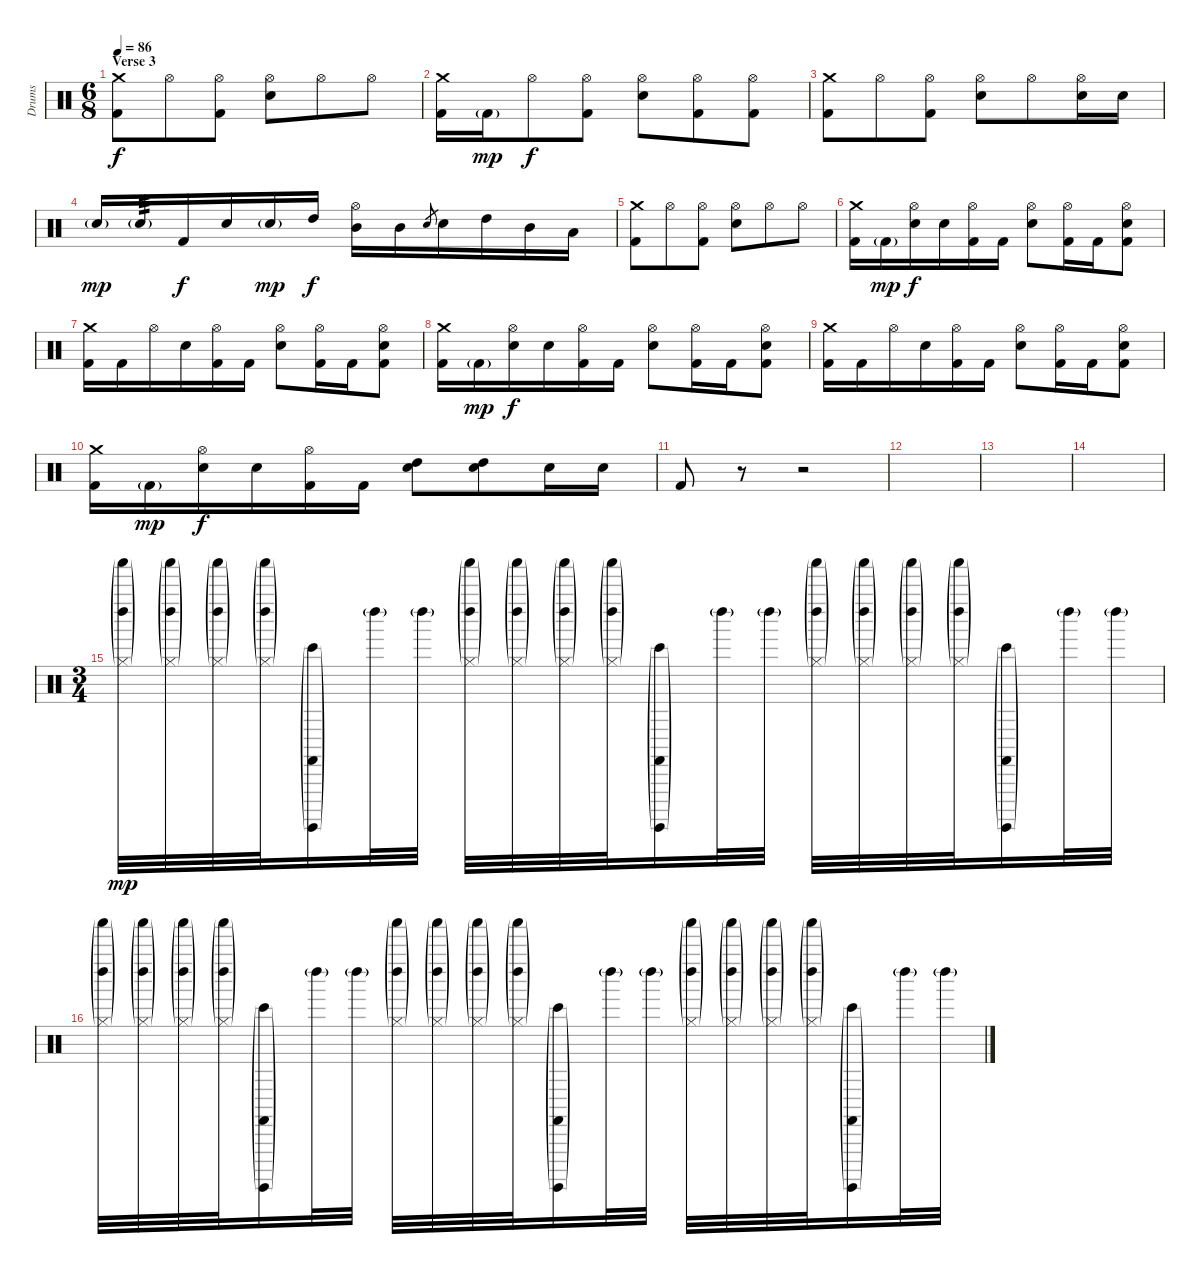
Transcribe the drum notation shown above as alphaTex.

\track ("Drums" "Drums") {instrument percussion}
\staff {score}
\articulation defaults
\ts (6 8)
\section ("" "Verse 3")
\tempo 86
\clef neutral
\ks c
("Crash medium (hit)" "Kick (hit) 2").8{dy f} "Hi-Hat (open)".8 ("Hi-Hat (open)" "Kick (hit) 2").8 ("Hi-Hat (open)" "Electric Snare (hit)").8 "Hi-Hat (open)".8 "Hi-Hat (open)".8 |
("Crash medium (hit)" "Kick (hit) 2").16 "Kick (hit) 2"{g}.16{dy mp} "Hi-Hat (open)".8{dy f} ("Hi-Hat (open)" "Kick (hit) 2").8 ("Hi-Hat (open)" "Electric Snare (hit)").8 ("Hi-Hat (open)" "Kick (hit) 2").8 ("Hi-Hat (open)" "Kick (hit) 2").8 |
("Crash medium (hit)" "Kick (hit) 2").8 "Hi-Hat (open)".8 ("Hi-Hat (open)" "Kick (hit) 2").8 ("Hi-Hat (open)" "Electric Snare (hit)").8 "Hi-Hat (open)".8 ("Hi-Hat (open)" "Electric Snare (hit)").16 "Electric Snare (hit)".16 |
"Electric Snare (hit)"{g}.16{dy mp} "Electric Snare (hit)"{g}.16{tp 3} "Kick (hit) 2".16{dy f} "Electric Snare (hit)".16 "Electric Snare (hit)"{g}.16{dy mp} "High Tom (hit)".16{dy f} ("Hi-Hat (open)" "Mid Tom (hit)").16 "Mid Tom (hit)".16 "Electric Snare (hit)".8{gr} "Electric Snare (hit)".16 "High Tom (hit)".16 "Mid Tom (hit)".16 "Low Tom (hit)".16 |
("Crash medium (hit)" "Kick (hit) 2").8 "Hi-Hat (open)".8 ("Hi-Hat (open)" "Kick (hit) 2").8 ("Hi-Hat (open)" "Electric Snare (hit)").8 "Hi-Hat (open)".8 "Hi-Hat (open)".8 |
("Crash medium (hit)" "Kick (hit) 2").16 "Kick (hit) 2"{g}.16{dy mp} ("Hi-Hat (open)" "Electric Snare (hit)").16{dy f} "Electric Snare (hit)".16 ("Hi-Hat (open)" "Kick (hit) 2").16 "Kick (hit) 2".16 ("Hi-Hat (open)" "Electric Snare (hit)").8 ("Hi-Hat (open)" "Kick (hit) 2").16 "Kick (hit) 2".16 ("Hi-Hat (open)" "Electric Snare (hit)" "Kick (hit) 2").8 |
("Crash medium (hit)" "Kick (hit) 2").16 "Kick (hit) 2".16 "Hi-Hat (open)".16 "Electric Snare (hit)".16 ("Hi-Hat (open)" "Kick (hit) 2").16 "Kick (hit) 2".16 ("Hi-Hat (open)" "Electric Snare (hit)").8 ("Hi-Hat (open)" "Kick (hit) 2").16 "Kick (hit) 2".16 ("Hi-Hat (open)" "Electric Snare (hit)" "Kick (hit) 2").8 |
("Crash medium (hit)" "Kick (hit) 2").16 "Kick (hit) 2"{g}.16{dy mp} ("Hi-Hat (open)" "Electric Snare (hit)").16{dy f} "Electric Snare (hit)".16 ("Hi-Hat (open)" "Kick (hit) 2").16 "Kick (hit) 2".16 ("Hi-Hat (open)" "Electric Snare (hit)").8 ("Hi-Hat (open)" "Kick (hit) 2").16 "Kick (hit) 2".16 ("Hi-Hat (open)" "Electric Snare (hit)" "Kick (hit) 2").8 |
("Crash medium (hit)" "Kick (hit) 2").16 "Kick (hit) 2".16 "Hi-Hat (open)".16 "Electric Snare (hit)".16 ("Hi-Hat (open)" "Kick (hit) 2").16 "Kick (hit) 2".16 ("Hi-Hat (open)" "Electric Snare (hit)").8 ("Hi-Hat (open)" "Kick (hit) 2").16 "Kick (hit) 2".16 ("Hi-Hat (open)" "Electric Snare (hit)" "Kick (hit) 2").8 |
("Crash medium (hit)" "Kick (hit) 2").16 "Kick (hit) 2"{g}.16{dy mp} ("Hi-Hat (open)" "Electric Snare (hit)").16{dy f} "Electric Snare (hit)".16 ("Hi-Hat (open)" "Kick (hit) 2").16 "Kick (hit) 2".16 ("High Tom (hit)" "Electric Snare (hit)").8 ("High Tom (hit)" "Electric Snare (hit)").8 "Electric Snare (hit)".16 "Electric Snare (hit)".16 |
"Kick (hit) 2".8 r.8 r.2 |
|
|
|
\ts (3 4)
("Shaker (hit)"{g} "Left Maraca (hit)"{g} "Hi-Hat (closed)"{g}).32{dy mp volume 5} ("Shaker (hit)"{g} "Left Maraca (hit)"{g} "Hi-Hat (closed)"{g}).32{volume 13} ("Shaker (hit)"{g} "Left Maraca (hit)"{g} "Hi-Hat (closed)"{g}).32 ("Shaker (hit)"{g} "Left Maraca (hit)"{g} "Hi-Hat (closed)"{g}).32 ("Castanets (hit)"{g} "Surdo (hit)"{g} "Bongo High (hit)"{g}).16 "Left Maraca (hit)"{g}.32 "Left Maraca (hit)"{g}.32 ("Shaker (hit)"{g} "Left Maraca (hit)"{g} "Hi-Hat (closed)"{g}).32 ("Shaker (hit)"{g} "Left Maraca (hit)"{g} "Hi-Hat (closed)"{g}).32 ("Shaker (hit)"{g} "Left Maraca (hit)"{g} "Hi-Hat (closed)"{g}).32 ("Shaker (hit)"{g} "Left Maraca (hit)"{g} "Hi-Hat (closed)"{g}).32 ("Castanets (hit)"{g} "Surdo (hit)"{g} "Bongo High (hit)"{g}).16 "Left Maraca (hit)"{g}.32 "Left Maraca (hit)"{g}.32 ("Shaker (hit)"{g} "Left Maraca (hit)"{g} "Hi-Hat (closed)"{g}).32 ("Shaker (hit)"{g} "Left Maraca (hit)"{g} "Hi-Hat (closed)"{g}).32 ("Shaker (hit)"{g} "Left Maraca (hit)"{g} "Hi-Hat (closed)"{g}).32 ("Shaker (hit)"{g} "Left Maraca (hit)"{g} "Hi-Hat (closed)"{g}).32 ("Castanets (hit)"{g} "Surdo (hit)"{g} "Bongo High (hit)"{g}).16 "Left Maraca (hit)"{g}.32 "Left Maraca (hit)"{g}.32 |
("Shaker (hit)"{g} "Left Maraca (hit)"{g} "Hi-Hat (closed)"{g}).32 ("Shaker (hit)"{g} "Left Maraca (hit)"{g} "Hi-Hat (closed)"{g}).32 ("Shaker (hit)"{g} "Left Maraca (hit)"{g} "Hi-Hat (closed)"{g}).32 ("Shaker (hit)"{g} "Left Maraca (hit)"{g} "Hi-Hat (closed)"{g}).32 ("Castanets (hit)"{g} "Surdo (hit)"{g} "Bongo High (hit)"{g}).16 "Left Maraca (hit)"{g}.32 "Left Maraca (hit)"{g}.32 ("Shaker (hit)"{g} "Left Maraca (hit)"{g} "Hi-Hat (closed)"{g}).32 ("Shaker (hit)"{g} "Left Maraca (hit)"{g} "Hi-Hat (closed)"{g}).32 ("Shaker (hit)"{g} "Left Maraca (hit)"{g} "Hi-Hat (closed)"{g}).32 ("Shaker (hit)"{g} "Left Maraca (hit)"{g} "Hi-Hat (closed)"{g}).32 ("Castanets (hit)"{g} "Surdo (hit)"{g} "Bongo High (hit)"{g}).16 "Left Maraca (hit)"{g}.32 "Left Maraca (hit)"{g}.32 ("Shaker (hit)"{g} "Left Maraca (hit)"{g} "Hi-Hat (closed)"{g}).32 ("Shaker (hit)"{g} "Left Maraca (hit)"{g} "Hi-Hat (closed)"{g}).32 ("Shaker (hit)"{g} "Left Maraca (hit)"{g} "Hi-Hat (closed)"{g}).32 ("Shaker (hit)"{g} "Left Maraca (hit)"{g} "Hi-Hat (closed)"{g}).32 ("Castanets (hit)"{g} "Surdo (hit)"{g} "Bongo High (hit)"{g}).16 "Left Maraca (hit)"{g}.32 "Left Maraca (hit)"{g}.32
